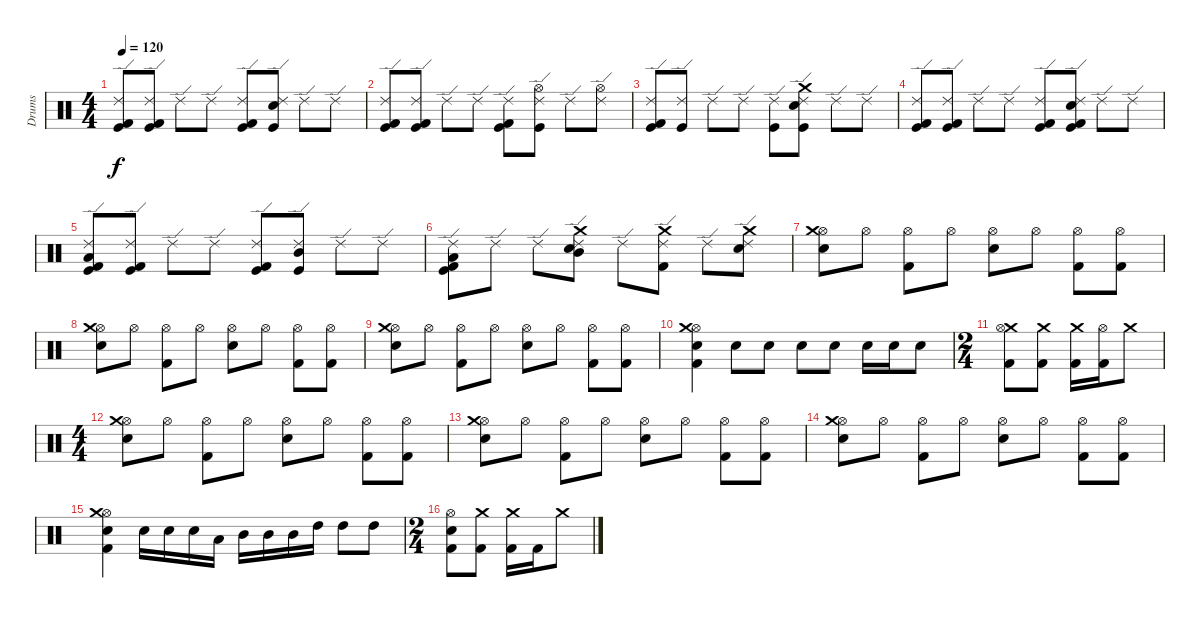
\track ("Drums" "Drums") {instrument percussion}
\staff {score}
\articulation defaults
\ts (4 4)
\tempo 120
\clef neutral
\ks c
("Ride (edge) 2" "Kick (hit) 2" "Kick (hit)").8{dy f} ("Ride (edge) 2" "Kick (hit) 2" "Kick (hit)").8 "Ride (edge) 2".8 "Ride (edge) 2".8 ("Ride (edge) 2" "Kick (hit) 2" "Kick (hit)").8 ("Ride (edge) 2" "Snare (hit) 2" "Kick (hit)").8 "Ride (edge) 2".8 "Ride (edge) 2".8 |
("Ride (edge) 2" "Kick (hit) 2" "Kick (hit)").8 ("Ride (edge) 2" "Kick (hit) 2" "Kick (hit)").8 "Ride (edge) 2".8 "Ride (edge) 2".8 ("Ride (edge) 2" "Kick (hit) 2" "Kick (hit)").8 ("Ride (edge) 2" "Hi-Hat (open)" "Kick (hit)").8 "Ride (edge) 2".8 ("Ride (edge) 2" "Hi-Hat (open)").8 |
("Ride (edge) 2" "Kick (hit) 2" "Kick (hit)").8 ("Ride (edge) 2" "Kick (hit)").8 "Ride (edge) 2".8 "Ride (edge) 2".8 ("Ride (edge) 2" "Kick (hit)").8 ("Ride (edge) 2" "Crash medium (hit)" "Snare (hit) 2" "Kick (hit)").8 "Ride (edge) 2".8 "Ride (edge) 2".8 |
("Ride (edge) 2" "Kick (hit) 2" "Kick (hit)").8 ("Ride (edge) 2" "Kick (hit) 2" "Kick (hit)").8 "Ride (edge) 2".8 "Ride (edge) 2".8 ("Ride (edge) 2" "Kick (hit) 2" "Kick (hit)").8 ("Ride (edge) 2" "Snare (hit) 2" "Kick (hit)" "Kick (hit) 2").8 "Ride (edge) 2".8 "Ride (edge) 2".8 |
("Ride (edge) 2" "Kick (hit) 2" "Kick (hit)" "Low Tom (hit)").8 ("Ride (edge) 2" "Kick (hit) 2" "Kick (hit)").8 "Ride (edge) 2".8 "Ride (edge) 2".8 ("Ride (edge) 2" "Kick (hit) 2" "Kick (hit)").8 ("Ride (edge) 2" "Kick (hit)" "Mid Tom (hit)").8 "Ride (edge) 2".8 "Ride (edge) 2".8 |
("Ride (edge) 2" "Kick (hit) 2" "Kick (hit)" "Low Tom (hit)").8 "Ride (edge) 2".8 "Ride (edge) 2".8 ("Ride (edge) 2" "Snare (hit) 2" "Crash medium (hit)" "Mid Tom (hit)").8 "Ride (edge) 2".8 ("Ride (edge) 2" "Kick (hit) 2" "Crash medium (hit)").8 "Ride (edge) 2".8 ("Ride (edge) 2" "Snare (hit) 2" "Crash medium (hit)").8 |
("Hi-Hat (open)" "Snare (hit) 2" "Crash medium (hit)").8 "Hi-Hat (open)".8 ("Hi-Hat (open)" "Kick (hit) 2").8 "Hi-Hat (open)".8 ("Hi-Hat (open)" "Snare (hit) 2").8 "Hi-Hat (open)".8 ("Hi-Hat (open)" "Kick (hit) 2").8 ("Hi-Hat (open)" "Kick (hit) 2").8 |
("Hi-Hat (open)" "Snare (hit) 2" "Crash medium (hit)").8 "Hi-Hat (open)".8 ("Hi-Hat (open)" "Kick (hit) 2").8 "Hi-Hat (open)".8 ("Hi-Hat (open)" "Snare (hit) 2").8 "Hi-Hat (open)".8 ("Hi-Hat (open)" "Kick (hit) 2").8 ("Hi-Hat (open)" "Kick (hit) 2").8 |
("Hi-Hat (open)" "Snare (hit) 2" "Crash medium (hit)").8 "Hi-Hat (open)".8 ("Hi-Hat (open)" "Kick (hit) 2").8 "Hi-Hat (open)".8 ("Hi-Hat (open)" "Snare (hit) 2").8 "Hi-Hat (open)".8 ("Hi-Hat (open)" "Kick (hit) 2").8 ("Hi-Hat (open)" "Kick (hit) 2").8 |
("Hi-Hat (open)" "Snare (hit) 2" "Kick (hit) 2" "Crash medium (hit)").4 "Snare (hit) 2".8 "Snare (hit) 2".8 "Snare (hit) 2".8 "Snare (hit) 2".8 "Snare (hit) 2".16 "Snare (hit) 2".16 "Snare (hit) 2".8 |
\ts (2 4)
("Crash medium (hit)" "Kick (hit) 2" "Hi-Hat (open)").8 ("Crash medium (hit)" "Kick (hit) 2").8 ("Crash medium (hit)" "Kick (hit) 2").16 ("Hi-Hat (open)" "Kick (hit) 2").16 "Crash medium (hit)".8 |
\ts (4 4)
("Hi-Hat (open)" "Snare (hit) 2" "Crash medium (hit)").8 "Hi-Hat (open)".8 ("Hi-Hat (open)" "Kick (hit) 2").8 "Hi-Hat (open)".8 ("Hi-Hat (open)" "Snare (hit) 2").8 "Hi-Hat (open)".8 ("Hi-Hat (open)" "Kick (hit) 2").8 ("Hi-Hat (open)" "Kick (hit) 2").8 |
("Hi-Hat (open)" "Snare (hit) 2" "Crash medium (hit)").8 "Hi-Hat (open)".8 ("Hi-Hat (open)" "Kick (hit) 2").8 "Hi-Hat (open)".8 ("Hi-Hat (open)" "Snare (hit) 2").8 "Hi-Hat (open)".8 ("Hi-Hat (open)" "Kick (hit) 2").8 ("Hi-Hat (open)" "Kick (hit) 2").8 |
("Hi-Hat (open)" "Snare (hit) 2" "Crash medium (hit)").8 "Hi-Hat (open)".8 ("Hi-Hat (open)" "Kick (hit) 2").8 "Hi-Hat (open)".8 ("Hi-Hat (open)" "Snare (hit) 2").8 "Hi-Hat (open)".8 ("Hi-Hat (open)" "Kick (hit) 2").8 ("Hi-Hat (open)" "Kick (hit) 2").8 |
("Hi-Hat (open)" "Snare (hit) 2" "Kick (hit) 2" "Crash medium (hit)").4 "Snare (hit) 2".16 "Snare (hit) 2".16 "Snare (hit) 2".16 "Low Tom (hit)".16 "Mid Tom (hit)".16 "Mid Tom (hit)".16 "Mid Tom (hit)".16 "High Tom (hit)".16 "High Tom (hit)".8 "High Tom (hit)".8 |
\ts (2 4)
("Snare (hit) 2" "Kick (hit) 2" "Hi-Hat (open)").8 ("Crash medium (hit)" "Kick (hit) 2").8 ("Crash medium (hit)" "Kick (hit) 2").16 "Kick (hit) 2".16 "Crash medium (hit)".8
